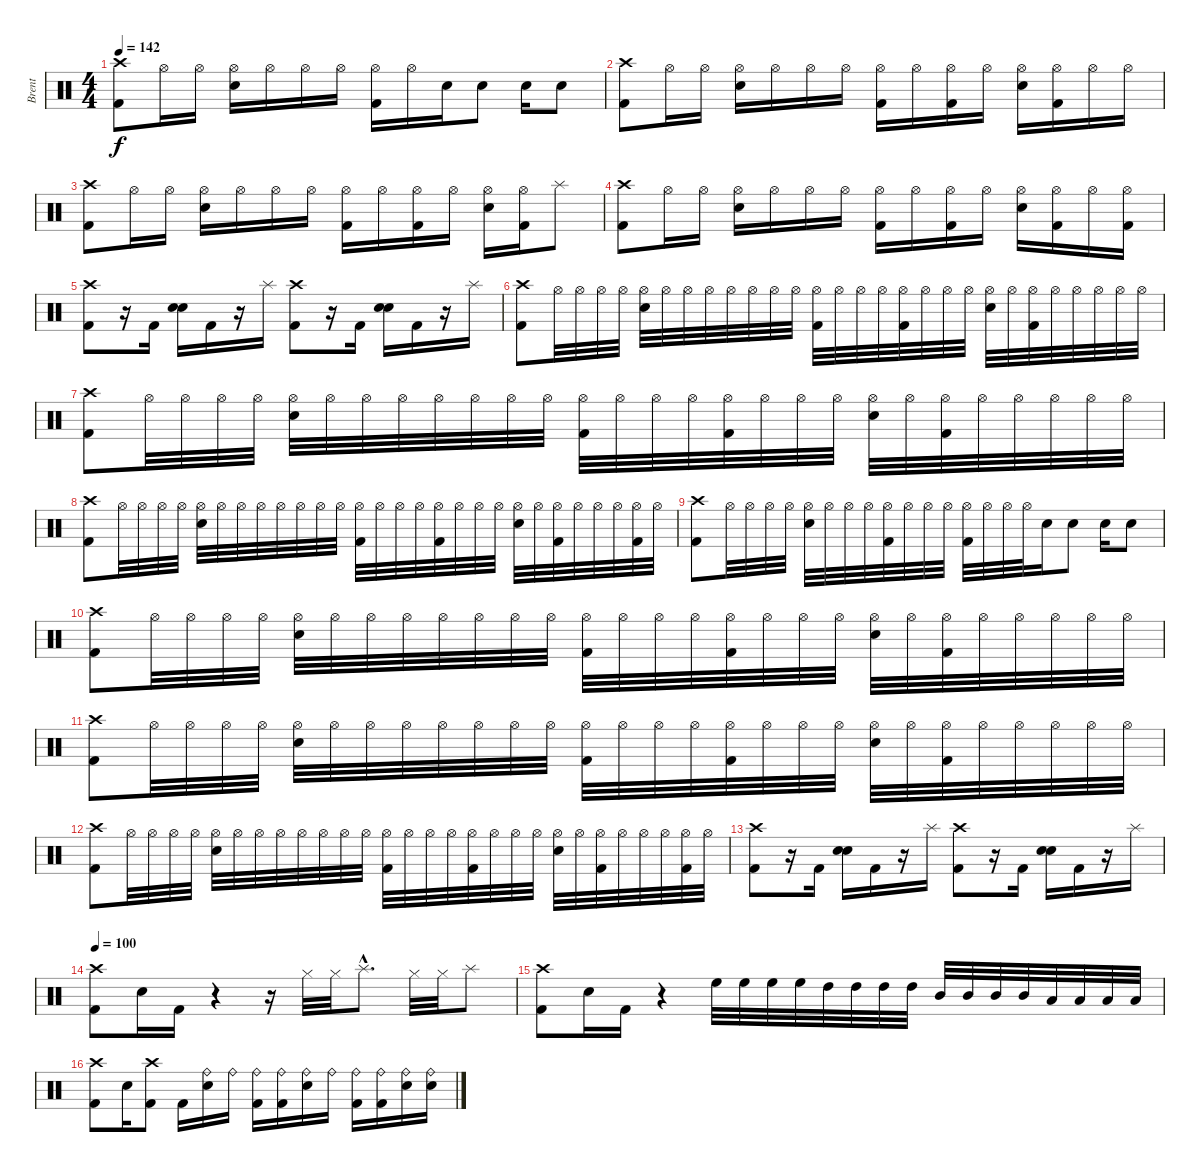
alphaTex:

\track ("Brent" "Brent") {instrument percussion}
\staff {score}
\articulation defaults
\ts (4 4)
\tempo 142
\clef neutral
\ks c
("Crash high (hit)" "Kick (hit) 2").8{dy f} "Hi-Hat (open)".16 "Hi-Hat (open)".16 ("Hi-Hat (open)" "Snare (hit) 2").16 "Hi-Hat (open)".16 "Hi-Hat (open)".16 "Hi-Hat (open)".16 ("Hi-Hat (open)" "Kick (hit) 2").16 "Hi-Hat (open)".16 "Snare (hit) 2".16 "Snare (hit) 2".8 "Snare (hit) 2".16 "Snare (hit) 2".8 |
("Crash high (hit)" "Kick (hit) 2").8 "Hi-Hat (open)".16 "Hi-Hat (open)".16 ("Hi-Hat (open)" "Snare (hit) 2").16 "Hi-Hat (open)".16 "Hi-Hat (open)".16 "Hi-Hat (open)".16 ("Hi-Hat (open)" "Kick (hit) 2").16 "Hi-Hat (open)".16 ("Hi-Hat (open)" "Kick (hit) 2").16 "Hi-Hat (open)".16 ("Hi-Hat (open)" "Snare (hit) 2").16 ("Hi-Hat (open)" "Kick (hit) 2").16 "Hi-Hat (open)".16 "Hi-Hat (open)".16 |
("Crash high (hit)" "Kick (hit) 2").8 "Hi-Hat (open)".16 "Hi-Hat (open)".16 ("Hi-Hat (open)" "Snare (hit) 2").16 "Hi-Hat (open)".16 "Hi-Hat (open)".16 "Hi-Hat (open)".16 ("Hi-Hat (open)" "Kick (hit) 2").16 "Hi-Hat (open)".16 ("Hi-Hat (open)" "Kick (hit) 2").16 "Hi-Hat (open)".16 ("Hi-Hat (open)" "Snare (hit) 2").16 ("Hi-Hat (open)" "Kick (hit) 2").16 "Splash (hit)".8 |
("Crash high (hit)" "Kick (hit) 2").8 "Hi-Hat (open)".16 "Hi-Hat (open)".16 ("Hi-Hat (open)" "Snare (hit) 2").16 "Hi-Hat (open)".16 "Hi-Hat (open)".16 "Hi-Hat (open)".16 ("Hi-Hat (open)" "Kick (hit) 2").16 "Hi-Hat (open)".16 ("Hi-Hat (open)" "Kick (hit) 2").16 "Hi-Hat (open)".16 ("Hi-Hat (open)" "Snare (hit) 2").16 ("Hi-Hat (open)" "Kick (hit) 2").16 "Hi-Hat (open)".16 ("Hi-Hat (open)" "Kick (hit) 2").16 |
("Crash high (hit)" "Kick (hit) 2").8 r.16 "Kick (hit) 2".16 ("Snare (hit) 2" "Snare (hit) 2").16 "Kick (hit) 2".16 r.16 "Splash (hit)".16 ("Crash high (hit)" "Kick (hit) 2").8 r.16 "Kick (hit) 2".16 ("Snare (hit) 2" "Snare (hit) 2").16 "Kick (hit) 2".16 r.16 "Splash (hit)".16 |
("Crash high (hit)" "Kick (hit) 2").8 "Hi-Hat (open)".32 "Hi-Hat (open)".32 "Hi-Hat (open)".32 "Hi-Hat (open)".32 ("Hi-Hat (open)" "Snare (hit) 2").32 "Hi-Hat (open)".32 "Hi-Hat (open)".32 "Hi-Hat (open)".32 "Hi-Hat (open)".32 "Hi-Hat (open)".32 "Hi-Hat (open)".32 "Hi-Hat (open)".32 ("Hi-Hat (open)" "Kick (hit) 2").32 "Hi-Hat (open)".32 "Hi-Hat (open)".32 "Hi-Hat (open)".32 ("Hi-Hat (open)" "Kick (hit) 2").32 "Hi-Hat (open)".32 "Hi-Hat (open)".32 "Hi-Hat (open)".32 ("Hi-Hat (open)" "Snare (hit) 2").32 "Hi-Hat (open)".32 ("Hi-Hat (open)" "Kick (hit) 2").32 "Hi-Hat (open)".32 "Hi-Hat (open)".32 "Hi-Hat (open)".32 "Hi-Hat (open)".32 "Hi-Hat (open)".32 |
("Crash high (hit)" "Kick (hit) 2").8 "Hi-Hat (open)".32 "Hi-Hat (open)".32 "Hi-Hat (open)".32 "Hi-Hat (open)".32 ("Hi-Hat (open)" "Snare (hit) 2").32 "Hi-Hat (open)".32 "Hi-Hat (open)".32 "Hi-Hat (open)".32 "Hi-Hat (open)".32 "Hi-Hat (open)".32 "Hi-Hat (open)".32 "Hi-Hat (open)".32 ("Hi-Hat (open)" "Kick (hit) 2").32 "Hi-Hat (open)".32 "Hi-Hat (open)".32 "Hi-Hat (open)".32 ("Hi-Hat (open)" "Kick (hit) 2").32 "Hi-Hat (open)".32 "Hi-Hat (open)".32 "Hi-Hat (open)".32 ("Hi-Hat (open)" "Snare (hit) 2").32 "Hi-Hat (open)".32 ("Hi-Hat (open)" "Kick (hit) 2").32 "Hi-Hat (open)".32 "Hi-Hat (open)".32 "Hi-Hat (open)".32 "Hi-Hat (open)".32 "Hi-Hat (open)".32 |
("Crash high (hit)" "Kick (hit) 2").8 "Hi-Hat (open)".32 "Hi-Hat (open)".32 "Hi-Hat (open)".32 "Hi-Hat (open)".32 ("Hi-Hat (open)" "Snare (hit) 2").32 "Hi-Hat (open)".32 "Hi-Hat (open)".32 "Hi-Hat (open)".32 "Hi-Hat (open)".32 "Hi-Hat (open)".32 "Hi-Hat (open)".32 "Hi-Hat (open)".32 ("Hi-Hat (open)" "Kick (hit) 2").32 "Hi-Hat (open)".32 "Hi-Hat (open)".32 "Hi-Hat (open)".32 ("Hi-Hat (open)" "Kick (hit) 2").32 "Hi-Hat (open)".32 "Hi-Hat (open)".32 "Hi-Hat (open)".32 ("Hi-Hat (open)" "Snare (hit) 2").32 "Hi-Hat (open)".32 ("Hi-Hat (open)" "Kick (hit) 2").32 "Hi-Hat (open)".32 "Hi-Hat (open)".32 "Hi-Hat (open)".32 ("Hi-Hat (open)" "Kick (hit) 2").32 "Hi-Hat (open)".32 |
("Crash high (hit)" "Kick (hit) 2").8 "Hi-Hat (open)".32 "Hi-Hat (open)".32 "Hi-Hat (open)".32 "Hi-Hat (open)".32 ("Hi-Hat (open)" "Snare (hit) 2").32 "Hi-Hat (open)".32 "Hi-Hat (open)".32 "Hi-Hat (open)".32 ("Hi-Hat (open)" "Kick (hit) 2").32 "Hi-Hat (open)".32 "Hi-Hat (open)".32 "Hi-Hat (open)".32 ("Hi-Hat (open)" "Kick (hit) 2").32 "Hi-Hat (open)".32 "Hi-Hat (open)".32 "Hi-Hat (open)".32 "Snare (hit) 2".16 "Snare (hit) 2".8 "Snare (hit) 2".16 "Snare (hit) 2".8 |
("Crash high (hit)" "Kick (hit) 2").8 "Hi-Hat (open)".32 "Hi-Hat (open)".32 "Hi-Hat (open)".32 "Hi-Hat (open)".32 ("Hi-Hat (open)" "Snare (hit) 2").32 "Hi-Hat (open)".32 "Hi-Hat (open)".32 "Hi-Hat (open)".32 "Hi-Hat (open)".32 "Hi-Hat (open)".32 "Hi-Hat (open)".32 "Hi-Hat (open)".32 ("Hi-Hat (open)" "Kick (hit) 2").32 "Hi-Hat (open)".32 "Hi-Hat (open)".32 "Hi-Hat (open)".32 ("Hi-Hat (open)" "Kick (hit) 2").32 "Hi-Hat (open)".32 "Hi-Hat (open)".32 "Hi-Hat (open)".32 ("Hi-Hat (open)" "Snare (hit) 2").32 "Hi-Hat (open)".32 ("Hi-Hat (open)" "Kick (hit) 2").32 "Hi-Hat (open)".32 "Hi-Hat (open)".32 "Hi-Hat (open)".32 "Hi-Hat (open)".32 "Hi-Hat (open)".32 |
("Crash high (hit)" "Kick (hit) 2").8 "Hi-Hat (open)".32 "Hi-Hat (open)".32 "Hi-Hat (open)".32 "Hi-Hat (open)".32 ("Hi-Hat (open)" "Snare (hit) 2").32 "Hi-Hat (open)".32 "Hi-Hat (open)".32 "Hi-Hat (open)".32 "Hi-Hat (open)".32 "Hi-Hat (open)".32 "Hi-Hat (open)".32 "Hi-Hat (open)".32 ("Hi-Hat (open)" "Kick (hit) 2").32 "Hi-Hat (open)".32 "Hi-Hat (open)".32 "Hi-Hat (open)".32 ("Hi-Hat (open)" "Kick (hit) 2").32 "Hi-Hat (open)".32 "Hi-Hat (open)".32 "Hi-Hat (open)".32 ("Hi-Hat (open)" "Snare (hit) 2").32 "Hi-Hat (open)".32 ("Hi-Hat (open)" "Kick (hit) 2").32 "Hi-Hat (open)".32 "Hi-Hat (open)".32 "Hi-Hat (open)".32 "Hi-Hat (open)".32 "Hi-Hat (open)".32 |
("Crash high (hit)" "Kick (hit) 2").8 "Hi-Hat (open)".32 "Hi-Hat (open)".32 "Hi-Hat (open)".32 "Hi-Hat (open)".32 ("Hi-Hat (open)" "Snare (hit) 2").32 "Hi-Hat (open)".32 "Hi-Hat (open)".32 "Hi-Hat (open)".32 "Hi-Hat (open)".32 "Hi-Hat (open)".32 "Hi-Hat (open)".32 "Hi-Hat (open)".32 ("Hi-Hat (open)" "Kick (hit) 2").32 "Hi-Hat (open)".32 "Hi-Hat (open)".32 "Hi-Hat (open)".32 ("Hi-Hat (open)" "Kick (hit) 2").32 "Hi-Hat (open)".32 "Hi-Hat (open)".32 "Hi-Hat (open)".32 ("Hi-Hat (open)" "Snare (hit) 2").32 "Hi-Hat (open)".32 ("Hi-Hat (open)" "Kick (hit) 2").32 "Hi-Hat (open)".32 "Hi-Hat (open)".32 "Hi-Hat (open)".32 ("Hi-Hat (open)" "Kick (hit) 2").32 "Hi-Hat (open)".32 |
("Crash high (hit)" "Kick (hit) 2").8 r.16 "Kick (hit) 2".16 ("Snare (hit) 2" "Snare (hit) 2").16 "Kick (hit) 2".16 r.16 "Splash (hit)".16 ("Crash high (hit)" "Kick (hit) 2").8 r.16 "Kick (hit) 2".16 ("Snare (hit) 2" "Snare (hit) 2").16 "Kick (hit) 2".16 r.16 "Splash (hit)".16 |
\tempo 100
("Crash high (hit)" "Kick (hit) 2").8 "Snare (hit) 2".16 "Kick (hit) 2".16 r.4 r.16 "Hi-Hat (closed)".32 "Hi-Hat (closed)".32 "Splash (hit)"{hac}.8{d} "Hi-Hat (closed)".32 "Hi-Hat (closed)".32 "Splash (hit)".8 |
("Crash high (hit)" "Kick (hit) 2").8 "Snare (hit) 2".16 "Kick (hit) 2".16 r.4 "High Floor Tom (hit)".32 "High Floor Tom (hit)".32 "High Floor Tom (hit)".32 "High Floor Tom (hit)".32 "High Tom (hit)".32 "High Tom (hit)".32 "High Tom (hit)".32 "High Tom (hit)".32 "Mid Tom (hit)".32 "Mid Tom (hit)".32 "Mid Tom (hit)".32 "Mid Tom (hit)".32 "Low Tom (hit)".32 "Low Tom (hit)".32 "Low Tom (hit)".32 "Low Tom (hit)".32 |
("Crash high (hit)" "Kick (hit) 2").8 "Snare (hit) 2".16 ("Crash high (hit)" "Kick (hit) 2").8 "Kick (hit) 2".16 ("Ride (bell)" "Snare (hit) 2").16 "Ride (bell)".16 ("Ride (bell)" "Kick (hit) 2").16 ("Ride (bell)" "Kick (hit) 2").16 ("Ride (bell)" "Snare (hit) 2").16 "Ride (bell)".16 ("Ride (bell)" "Kick (hit) 2").16 ("Ride (bell)" "Kick (hit) 2").16 ("Ride (bell)" "Snare (hit) 2").16 ("Ride (bell)" "Snare (hit) 2").16
